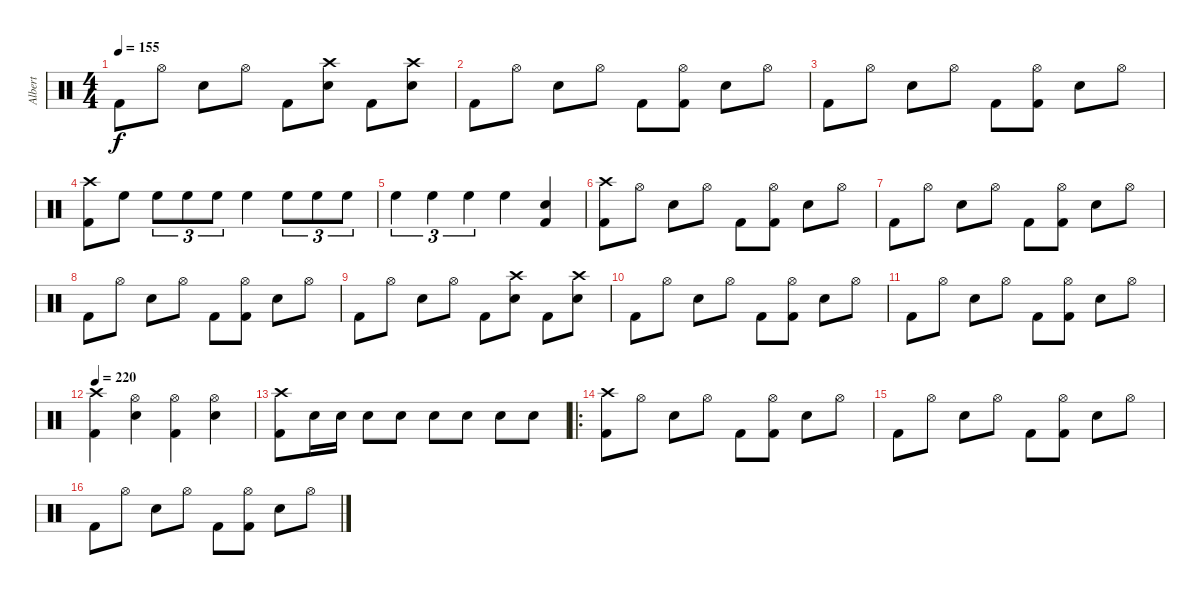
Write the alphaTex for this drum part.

\track ("Albert" "Albert") {instrument percussion}
\staff {score}
\articulation defaults
\ts (4 4)
\tempo 155
\clef neutral
\ks c "Kick (hit) 2".8{dy f} "Hi-Hat (open)".8 "Electric Snare (hit)".8 "Hi-Hat (open)".8 "Kick (hit) 2".8
("Crash high (hit)" "Electric Snare (hit)").8 "Kick (hit) 2".8 ("Crash high (hit)" "Electric Snare (hit)").8 |
"Kick (hit) 2".8 "Hi-Hat (open)".8 "Electric Snare (hit)".8 "Hi-Hat (open)".8 "Kick (hit) 2".8 ("Hi-Hat (open)" "Kick (hit) 2").8 "Electric Snare (hit)".8 "Hi-Hat (open)".8 |
"Kick (hit) 2".8 "Hi-Hat (open)".8 "Electric Snare (hit)".8 "Hi-Hat (open)".8 "Kick (hit) 2".8 ("Hi-Hat (open)" "Kick (hit) 2").8 "Electric Snare (hit)".8 "Hi-Hat (open)".8 |
("Crash high (hit)" "Kick (hit) 2").8 "High Floor Tom (hit)".8 "High Floor Tom (hit)".8{tu (3 2)} "High Floor Tom (hit)".8{tu (3 2)} "High Floor Tom (hit)".8{tu (3 2)} "High Floor Tom (hit)".4 "High Floor Tom (hit)".8{tu (3 2)} "High Floor Tom (hit)".8{tu (3 2)} "High Floor Tom (hit)".8{tu (3 2)} |
"High Floor Tom (hit)".4{tu (3 2)} "High Floor Tom (hit)".4{tu (3 2)} "High Floor Tom (hit)".4{tu (3 2)} "High Floor Tom (hit)".4 ("Electric Snare (hit)" "Kick (hit) 2").4 |
("Crash high (hit)" "Kick (hit) 2").8 "Hi-Hat (open)".8 "Electric Snare (hit)".8 "Hi-Hat (open)".8 "Kick (hit) 2".8 ("Hi-Hat (open)" "Kick (hit) 2").8 "Electric Snare (hit)".8 "Hi-Hat (open)".8 |
"Kick (hit) 2".8 "Hi-Hat (open)".8 "Electric Snare (hit)".8 "Hi-Hat (open)".8 "Kick (hit) 2".8 ("Hi-Hat (open)" "Kick (hit) 2").8 "Electric Snare (hit)".8 "Hi-Hat (open)".8 |
"Kick (hit) 2".8 "Hi-Hat (open)".8 "Electric Snare (hit)".8 "Hi-Hat (open)".8 "Kick (hit) 2".8 ("Hi-Hat (open)" "Kick (hit) 2").8 "Electric Snare (hit)".8 "Hi-Hat (open)".8 |
"Kick (hit) 2".8 "Hi-Hat (open)".8 "Electric Snare (hit)".8 "Hi-Hat (open)".8 "Kick (hit) 2".8 ("Crash high (hit)" "Electric Snare (hit)").8 "Kick (hit) 2".8 ("Crash high (hit)" "Electric Snare (hit)").8 |
"Kick (hit) 2".8 "Hi-Hat (open)".8 "Electric Snare (hit)".8 "Hi-Hat (open)".8 "Kick (hit) 2".8 ("Hi-Hat (open)" "Kick (hit) 2").8 "Electric Snare (hit)".8 "Hi-Hat (open)".8 |
"Kick (hit) 2".8 "Hi-Hat (open)".8 "Electric Snare (hit)".8 "Hi-Hat (open)".8 "Kick (hit) 2".8 ("Hi-Hat (open)" "Kick (hit) 2").8 "Electric Snare (hit)".8 "Hi-Hat (open)".8 |
\tempo 220
("Crash high (hit)" "Kick (hit) 2").4 ("Hi-Hat (open)" "Electric Snare (hit)").4 ("Hi-Hat (open)" "Kick (hit) 2").4 ("Hi-Hat (open)" "Electric Snare (hit)").4 |
("Crash high (hit)" "Kick (hit) 2").8 "Electric Snare (hit)".16 "Electric Snare (hit)".16 "Electric Snare (hit)".8 "Electric Snare (hit)".8 "Electric Snare (hit)".8 "Electric Snare (hit)".8 "Electric Snare (hit)".8 "Electric Snare (hit)".8 |
\ro
("Crash high (hit)" "Kick (hit) 2").8 "Hi-Hat (open)".8 "Electric Snare (hit)".8 "Hi-Hat (open)".8 "Kick (hit) 2".8 ("Hi-Hat (open)" "Kick (hit) 2").8 "Electric Snare (hit)".8 "Hi-Hat (open)".8 |
"Kick (hit) 2".8 "Hi-Hat (open)".8 "Electric Snare (hit)".8 "Hi-Hat (open)".8 "Kick (hit) 2".8 ("Hi-Hat (open)" "Kick (hit) 2").8 "Electric Snare (hit)".8 "Hi-Hat (open)".8 |
"Kick (hit) 2".8 "Hi-Hat (open)".8 "Electric Snare (hit)".8 "Hi-Hat (open)".8 "Kick (hit) 2".8 ("Hi-Hat (open)" "Kick (hit) 2").8 "Electric Snare (hit)".8 "Hi-Hat (open)".8
